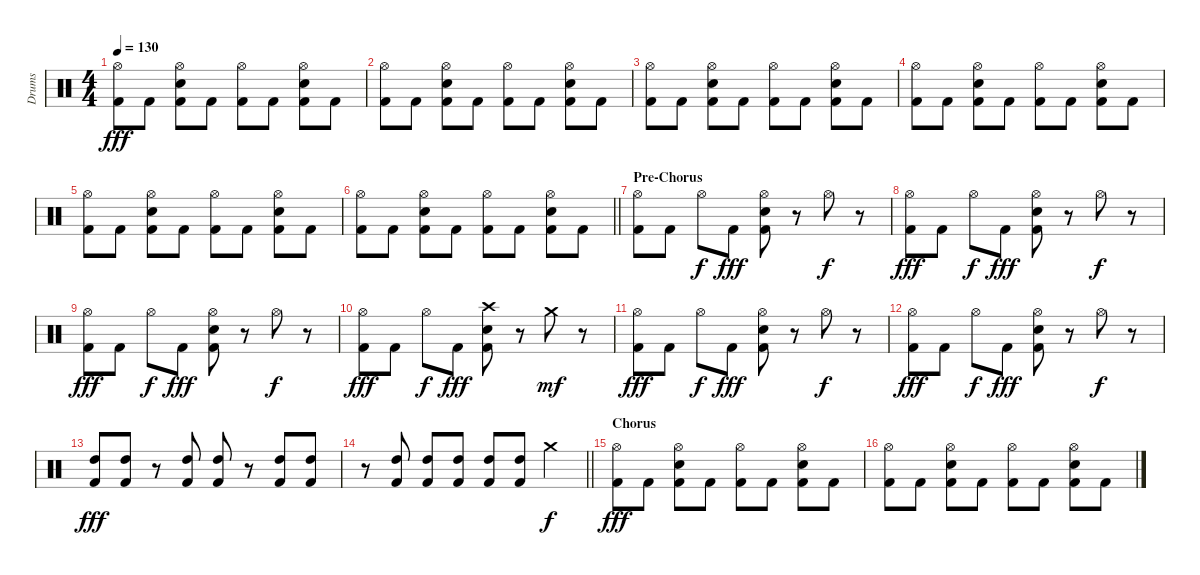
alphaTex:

\track ("Drums" "Drums") {instrument percussion}
\staff {score}
\articulation defaults
\ts (4 4)
\tempo 130
\clef neutral
\ks c
("Hi-Hat (open)" "Kick (hit) 2").8{dy fff} "Kick (hit) 2".8 ("Hi-Hat (open)" "Snare (hit) 2" "Kick (hit) 2").8 "Kick (hit) 2".8 ("Hi-Hat (open)" "Kick (hit) 2").8 "Kick (hit) 2".8 ("Hi-Hat (open)" "Snare (hit) 2" "Kick (hit) 2").8 "Kick (hit) 2".8 |
("Hi-Hat (open)" "Kick (hit) 2").8 "Kick (hit) 2".8 ("Hi-Hat (open)" "Snare (hit) 2" "Kick (hit) 2").8 "Kick (hit) 2".8 ("Hi-Hat (open)" "Kick (hit) 2").8 "Kick (hit) 2".8 ("Hi-Hat (open)" "Snare (hit) 2" "Kick (hit) 2").8 "Kick (hit) 2".8 |
("Hi-Hat (open)" "Kick (hit) 2").8 "Kick (hit) 2".8 ("Hi-Hat (open)" "Snare (hit) 2" "Kick (hit) 2").8 "Kick (hit) 2".8 ("Hi-Hat (open)" "Kick (hit) 2").8 "Kick (hit) 2".8 ("Hi-Hat (open)" "Snare (hit) 2" "Kick (hit) 2").8 "Kick (hit) 2".8 |
("Hi-Hat (open)" "Kick (hit) 2").8 "Kick (hit) 2".8 ("Hi-Hat (open)" "Snare (hit) 2" "Kick (hit) 2").8 "Kick (hit) 2".8 ("Hi-Hat (open)" "Kick (hit) 2").8 "Kick (hit) 2".8 ("Hi-Hat (open)" "Snare (hit) 2" "Kick (hit) 2").8 "Kick (hit) 2".8 |
("Hi-Hat (open)" "Kick (hit) 2").8 "Kick (hit) 2".8 ("Hi-Hat (open)" "Snare (hit) 2" "Kick (hit) 2").8 "Kick (hit) 2".8 ("Hi-Hat (open)" "Kick (hit) 2").8 "Kick (hit) 2".8 ("Hi-Hat (open)" "Snare (hit) 2" "Kick (hit) 2").8 "Kick (hit) 2".8 |
\barLineRight lightlight
("Hi-Hat (open)" "Kick (hit) 2").8 "Kick (hit) 2".8 ("Hi-Hat (open)" "Snare (hit) 2" "Kick (hit) 2").8 "Kick (hit) 2".8 ("Hi-Hat (open)" "Kick (hit) 2").8 "Kick (hit) 2".8 ("Hi-Hat (open)" "Snare (hit) 2" "Kick (hit) 2").8 "Kick (hit) 2".8 |
\section ("" "Pre-Chorus")
("Hi-Hat (open)" "Kick (hit) 2").8 "Kick (hit) 2".8 "Hi-Hat (open)".8{dy f} "Kick (hit) 2".8{dy fff} ("Hi-Hat (open)" "Snare (hit) 2" "Kick (hit) 2").8 r.8 "Hi-Hat (open)".8{dy f} r.8 |
("Hi-Hat (open)" "Kick (hit) 2").8{dy fff} "Kick (hit) 2".8 "Hi-Hat (open)".8{dy f} "Kick (hit) 2".8{dy fff} ("Hi-Hat (open)" "Snare (hit) 2" "Kick (hit) 2").8 r.8 "Hi-Hat (open)".8{dy f} r.8 |
("Hi-Hat (open)" "Kick (hit) 2").8{dy fff} "Kick (hit) 2".8 "Hi-Hat (open)".8{dy f} "Kick (hit) 2".8{dy fff} ("Hi-Hat (open)" "Snare (hit) 2" "Kick (hit) 2").8 r.8 "Hi-Hat (open)".8{dy f} r.8 |
("Hi-Hat (open)" "Kick (hit) 2").8{dy fff} "Kick (hit) 2".8 "Hi-Hat (open)".8{dy f} "Kick (hit) 2".8{dy fff} ("Crash high (hit)" "Snare (hit) 2" "Kick (hit) 2").8 r.8 "Crash medium (hit)".8{dy mf} r.8 |
("Hi-Hat (open)" "Kick (hit) 2").8{dy fff} "Kick (hit) 2".8 "Hi-Hat (open)".8{dy f} "Kick (hit) 2".8{dy fff} ("Hi-Hat (open)" "Snare (hit) 2" "Kick (hit) 2").8 r.8 "Hi-Hat (open)".8{dy f} r.8 |
("Hi-Hat (open)" "Kick (hit) 2").8{dy fff} "Kick (hit) 2".8 "Hi-Hat (open)".8{dy f} "Kick (hit) 2".8{dy fff} ("Hi-Hat (open)" "Snare (hit) 2" "Kick (hit) 2").8 r.8 "Hi-Hat (open)".8{dy f} r.8 |
("High Tom (hit)" "Kick (hit) 2").8{dy fff} ("High Tom (hit)" "Kick (hit) 2").8 r.8 ("High Tom (hit)" "Kick (hit) 2").8 ("High Tom (hit)" "Kick (hit) 2").8 r.8 ("High Tom (hit)" "Kick (hit) 2").8 ("High Tom (hit)" "Kick (hit) 2").8 |
\barLineRight lightlight
r.8 ("High Tom (hit)" "Kick (hit) 2").8 ("High Tom (hit)" "Kick (hit) 2").8 ("High Tom (hit)" "Kick (hit) 2").8 ("High Tom (hit)" "Kick (hit) 2").8 ("High Tom (hit)" "Kick (hit) 2").8 "Crash medium (hit)".4{dy f} |
\section ("" "Chorus")
("Hi-Hat (open)" "Kick (hit) 2").8{dy fff} "Kick (hit) 2".8 ("Hi-Hat (open)" "Snare (hit) 2" "Kick (hit) 2").8 "Kick (hit) 2".8 ("Hi-Hat (open)" "Kick (hit) 2").8 "Kick (hit) 2".8 ("Hi-Hat (open)" "Snare (hit) 2" "Kick (hit) 2").8 "Kick (hit) 2".8 |
("Hi-Hat (open)" "Kick (hit) 2").8 "Kick (hit) 2".8 ("Hi-Hat (open)" "Snare (hit) 2" "Kick (hit) 2").8 "Kick (hit) 2".8 ("Hi-Hat (open)" "Kick (hit) 2").8 "Kick (hit) 2".8 ("Hi-Hat (open)" "Snare (hit) 2" "Kick (hit) 2").8 "Kick (hit) 2".8
